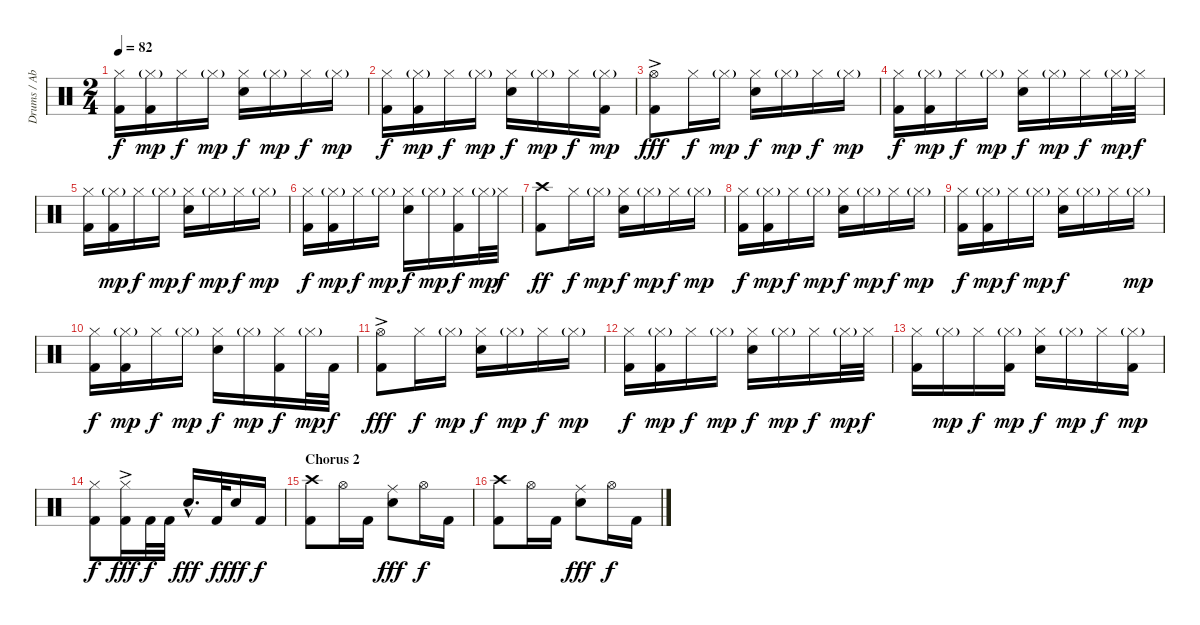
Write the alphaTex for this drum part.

\track ("Drums / Abe Cunningham" "Drums / Ab") {instrument percussion}
\staff {score}
\articulation defaults
\ts (2 4)
\tempo 82
\clef neutral
\ks c
("Hi-Hat (closed)" "Kick (hit) 2").16{dy f} ("Hi-Hat (closed)"{g} "Kick (hit) 2").16{dy mp} "Hi-Hat (closed)".16{dy f} "Hi-Hat (closed)"{g}.16{dy mp} ("Hi-Hat (closed)" "Electric Snare (hit)").16{dy f} "Hi-Hat (closed)"{g}.16{dy mp} "Hi-Hat (closed)".16{dy f} "Hi-Hat (closed)"{g}.16{dy mp} |
("Hi-Hat (closed)" "Kick (hit) 2").16{dy f} ("Hi-Hat (closed)"{g} "Kick (hit) 2").16{dy mp} "Hi-Hat (closed)".16{dy f} "Hi-Hat (closed)"{g}.16{dy mp} ("Hi-Hat (closed)" "Electric Snare (hit)").16{dy f} "Hi-Hat (closed)"{g}.16{dy mp} "Hi-Hat (closed)".16{dy f} ("Hi-Hat (closed)"{g} "Kick (hit) 2").16{dy mp} |
("Hi-Hat (open)"{ac} "Kick (hit) 2").8{dy fff} "Hi-Hat (closed)".16{dy f} "Hi-Hat (closed)"{g}.16{dy mp} ("Hi-Hat (closed)" "Electric Snare (hit)").16{dy f} "Hi-Hat (closed)"{g}.16{dy mp} "Hi-Hat (closed)".16{dy f} "Hi-Hat (closed)"{g}.16{dy mp} |
("Hi-Hat (closed)" "Kick (hit) 2").16{dy f} ("Hi-Hat (closed)"{g} "Kick (hit) 2").16{dy mp} "Hi-Hat (closed)".16{dy f} "Hi-Hat (closed)"{g}.16{dy mp} ("Hi-Hat (closed)" "Electric Snare (hit)").16{dy f} "Hi-Hat (closed)"{g}.16{dy mp} "Hi-Hat (closed)".16{dy f} "Hi-Hat (closed)"{g}.32{dy mp} "Hi-Hat (closed)".32{dy f} |
("Hi-Hat (closed)" "Kick (hit) 2").16 ("Hi-Hat (closed)"{g} "Kick (hit) 2").16{dy mp} "Hi-Hat (closed)".16{dy f} "Hi-Hat (closed)"{g}.16{dy mp} ("Hi-Hat (closed)" "Electric Snare (hit)").16{dy f} "Hi-Hat (closed)"{g}.16{dy mp} "Hi-Hat (closed)".16{dy f} "Hi-Hat (closed)"{g}.16{dy mp} |
("Hi-Hat (closed)" "Kick (hit) 2").16{dy f} ("Hi-Hat (closed)"{g} "Kick (hit) 2").16{dy mp} "Hi-Hat (closed)".16{dy f} "Hi-Hat (closed)"{g}.16{dy mp} ("Hi-Hat (closed)" "Electric Snare (hit)").16{dy f} "Hi-Hat (closed)"{g}.16{dy mp} ("Hi-Hat (closed)" "Kick (hit) 2").16{dy f} "Hi-Hat (closed)"{g}.32{dy mp} "Hi-Hat (closed)".32{dy f} |
("Crash high (hit)" "Kick (hit) 2").8{dy ff} "Hi-Hat (closed)".16{dy f} "Hi-Hat (closed)"{g}.16{dy mp} ("Hi-Hat (closed)" "Electric Snare (hit)").16{dy f} "Hi-Hat (closed)"{g}.16{dy mp} "Hi-Hat (closed)".16{dy f} "Hi-Hat (closed)"{g}.16{dy mp} |
("Hi-Hat (closed)" "Kick (hit) 2").16{dy f} ("Hi-Hat (closed)"{g} "Kick (hit) 2").16{dy mp} "Hi-Hat (closed)".16{dy f} "Hi-Hat (closed)"{g}.16{dy mp} ("Hi-Hat (closed)" "Electric Snare (hit)").16{dy f} "Hi-Hat (closed)"{g}.16{dy mp} "Hi-Hat (closed)".16{dy f} "Hi-Hat (closed)"{g}.16{dy mp} |
("Hi-Hat (closed)" "Kick (hit) 2").16{dy f} ("Hi-Hat (closed)"{g} "Kick (hit) 2").16{dy mp} "Hi-Hat (closed)".16{dy f} "Hi-Hat (closed)"{g}.16{dy mp} ("Hi-Hat (closed)" "Electric Snare (hit)").16{dy f} "Hi-Hat (closed)"{g}.16 "Hi-Hat (closed)".16 "Hi-Hat (closed)"{g}.16{dy mp} |
("Hi-Hat (closed)" "Kick (hit) 2").16{dy f} ("Hi-Hat (closed)"{g} "Kick (hit) 2").16{dy mp} "Hi-Hat (closed)".16{dy f} "Hi-Hat (closed)"{g}.16{dy mp} ("Hi-Hat (closed)" "Electric Snare (hit)").16{dy f} "Hi-Hat (closed)"{g}.16{dy mp} ("Hi-Hat (closed)" "Kick (hit) 2").16{dy f} "Hi-Hat (closed)"{g}.32{dy mp} "Kick (hit) 2".32{dy f} |
("Hi-Hat (open)"{ac} "Kick (hit) 2").8{dy fff} "Hi-Hat (closed)".16{dy f} "Hi-Hat (closed)"{g}.16{dy mp} ("Hi-Hat (closed)" "Electric Snare (hit)").16{dy f} "Hi-Hat (closed)"{g}.16{dy mp} "Hi-Hat (closed)".16{dy f} "Hi-Hat (closed)"{g}.16{dy mp} |
("Hi-Hat (closed)" "Kick (hit) 2").16{dy f} ("Hi-Hat (closed)"{g} "Kick (hit) 2").16{dy mp} "Hi-Hat (closed)".16{dy f} "Hi-Hat (closed)"{g}.16{dy mp} ("Hi-Hat (closed)" "Electric Snare (hit)").16{dy f} "Hi-Hat (closed)"{g}.16{dy mp} "Hi-Hat (closed)".16{dy f} "Hi-Hat (closed)"{g}.32{dy mp} "Hi-Hat (closed)".32{dy f} |
("Hi-Hat (closed)" "Kick (hit) 2").16 "Hi-Hat (closed)"{g}.16{dy mp} "Hi-Hat (closed)".16{dy f} ("Hi-Hat (closed)"{g} "Kick (hit) 2").16{dy mp} ("Hi-Hat (closed)" "Electric Snare (hit)").16{dy f} "Hi-Hat (closed)"{g}.16{dy mp} "Hi-Hat (closed)".16{dy f} ("Hi-Hat (closed)"{g} "Kick (hit) 2").16{dy mp} |
("Hi-Hat (closed)" "Kick (hit) 2").8{dy f} ("Hi-Hat (closed)"{ac} "Kick (hit) 2").16{dy fff} "Kick (hit) 2".32{dy f} "Kick (hit) 2".32 "Electric Snare (hit)"{hac}.16{d dy fff} "Kick (hit) 2".32{dy f} "Electric Snare (hit)".16{dy fff} "Kick (hit) 2".16{dy f} |
\section ("" "Chorus 2")
("Crash high (hit)" "Kick (hit) 2").8 "Hi-Hat (open)".16 "Kick (hit) 2".16 ("Ride (middle)" "Electric Snare (hit)").8{dy fff} "Hi-Hat (open)".16{dy f} "Kick (hit) 2".16 |
("Crash high (hit)" "Kick (hit) 2").8 "Hi-Hat (open)".16 "Kick (hit) 2".16 ("Ride (middle)" "Electric Snare (hit)").8{dy fff} "Hi-Hat (open)".16{dy f} "Kick (hit) 2".16
